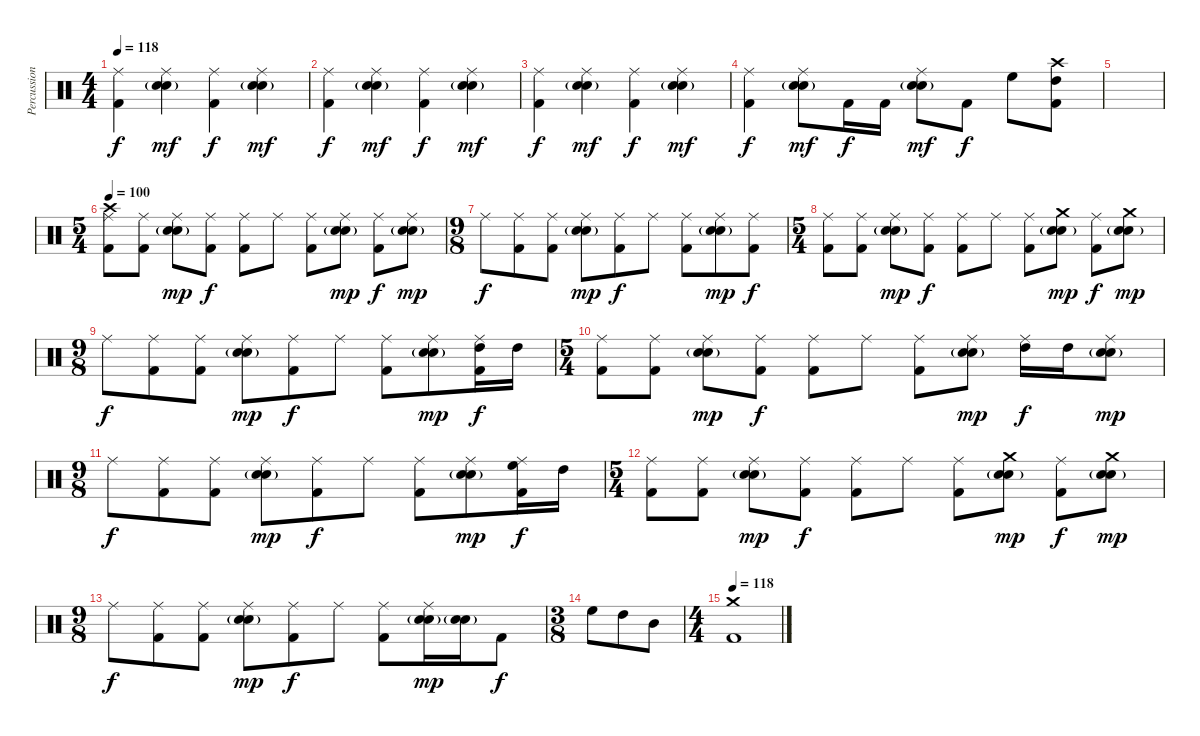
\track ("Percussion" "Percussion") {instrument percussion}
\staff {score}
\articulation defaults
\ts (4 4)
\tempo 118
\clef neutral
\ks c
("Ride (middle)" "Kick (hit) 2").4{dy f} ("Ride (middle)" "Electric Snare (hit)" "Snare (hit) 2"{g}).4{dy mf} ("Ride (middle)" "Kick (hit) 2").4{dy f} ("Ride (middle)" "Electric Snare (hit)" "Snare (hit) 2"{g}).4{dy mf} |
("Ride (middle)" "Kick (hit) 2").4{dy f} ("Ride (middle)" "Electric Snare (hit)" "Snare (hit) 2"{g}).4{dy mf} ("Ride (middle)" "Kick (hit) 2").4{dy f} ("Ride (middle)" "Electric Snare (hit)" "Snare (hit) 2"{g}).4{dy mf} |
("Ride (middle)" "Kick (hit) 2").4{dy f} ("Ride (middle)" "Electric Snare (hit)" "Snare (hit) 2"{g}).4{dy mf} ("Ride (middle)" "Kick (hit) 2").4{dy f} ("Ride (middle)" "Electric Snare (hit)" "Snare (hit) 2"{g}).4{dy mf} |
("Ride (middle)" "Kick (hit) 2").4{dy f} ("Ride (middle)" "Electric Snare (hit)" "Snare (hit) 2"{g}).8{dy mf} "Kick (hit) 2".16{dy f} "Kick (hit) 2".16 ("Ride (middle)" "Electric Snare (hit)" "Snare (hit) 2"{g}).8{dy mf} "Kick (hit) 2".8{dy f} "High Floor Tom (hit)".8 ("Crash high (hit)" "High Tom (hit)" "Kick (hit) 2").8 |
|
\ts (5 4)
\tempo 100
("Crash high (hit)" "Ride (middle)" "Kick (hit) 2").8 ("Ride (middle)" "Kick (hit) 2").8 ("Ride (middle)" "Electric Snare (hit)" "Snare (hit) 2"{g}).8{dy mp} ("Ride (middle)" "Kick (hit) 2").8{dy f} ("Ride (middle)" "Kick (hit) 2").8 "Ride (middle)".8 ("Ride (middle)" "Kick (hit) 2").8 ("Ride (middle)" "Electric Snare (hit)" "Snare (hit) 2"{g}).8{dy mp} ("Ride (middle)" "Kick (hit) 2").8{dy f} ("Ride (middle)" "Electric Snare (hit)" "Snare (hit) 2"{g}).8{dy mp} |
\ts (9 8)
"Ride (middle)".8{dy f} ("Ride (middle)" "Kick (hit) 2").8 ("Ride (middle)" "Kick (hit) 2").8 ("Ride (middle)" "Electric Snare (hit)" "Snare (hit) 2"{g}).8{dy mp} ("Ride (middle)" "Kick (hit) 2").8{dy f} "Ride (middle)".8 ("Ride (middle)" "Kick (hit) 2").8 ("Ride (middle)" "Electric Snare (hit)" "Snare (hit) 2"{g}).8{dy mp} ("Ride (middle)" "Kick (hit) 2").8{dy f} |
\ts (5 4)
("Ride (middle)" "Kick (hit) 2").8 ("Ride (middle)" "Kick (hit) 2").8 ("Ride (middle)" "Electric Snare (hit)" "Snare (hit) 2"{g}).8{dy mp} ("Ride (middle)" "Kick (hit) 2").8{dy f} ("Ride (middle)" "Kick (hit) 2").8 "Ride (middle)".8 ("Ride (middle)" "Kick (hit) 2").8 ("Crash medium (hit)" "Electric Snare (hit)" "Snare (hit) 2"{g}).8{dy mp} ("Ride (middle)" "Kick (hit) 2").8{dy f} ("Crash medium (hit)" "Electric Snare (hit)" "Snare (hit) 2"{g}).8{dy mp} |
\ts (9 8)
"Ride (middle)".8{dy f} ("Ride (middle)" "Kick (hit) 2").8 ("Ride (middle)" "Kick (hit) 2").8 ("Ride (middle)" "Electric Snare (hit)" "Snare (hit) 2"{g}).8{dy mp} ("Ride (middle)" "Kick (hit) 2").8{dy f} "Ride (middle)".8 ("Ride (middle)" "Kick (hit) 2").8 ("Ride (middle)" "Electric Snare (hit)" "Snare (hit) 2"{g}).8{dy mp} ("Ride (middle)" "High Tom (hit)" "Kick (hit) 2").16{dy f} "High Tom (hit)".16 |
\ts (5 4)
("Ride (middle)" "Kick (hit) 2").8 ("Ride (middle)" "Kick (hit) 2").8 ("Ride (middle)" "Electric Snare (hit)" "Snare (hit) 2"{g}).8{dy mp} ("Ride (middle)" "Kick (hit) 2").8{dy f} ("Ride (middle)" "Kick (hit) 2").8 "Ride (middle)".8 ("Ride (middle)" "Kick (hit) 2").8 ("Ride (middle)" "Electric Snare (hit)" "Snare (hit) 2"{g}).8{dy mp} ("Ride (middle)" "High Tom (hit)").16{dy f} "High Tom (hit)".16 ("Ride (middle)" "Electric Snare (hit)" "Snare (hit) 2"{g}).8{dy mp} |
\ts (9 8)
"Ride (middle)".8{dy f} ("Ride (middle)" "Kick (hit) 2").8 ("Ride (middle)" "Kick (hit) 2").8 ("Ride (middle)" "Electric Snare (hit)" "Snare (hit) 2"{g}).8{dy mp} ("Ride (middle)" "Kick (hit) 2").8{dy f} "Ride (middle)".8 ("Ride (middle)" "Kick (hit) 2").8 ("Ride (middle)" "Electric Snare (hit)" "Snare (hit) 2"{g}).8{dy mp} ("Ride (middle)" "High Floor Tom (hit)" "Kick (hit) 2").16{dy f} "High Tom (hit)".16 |
\ts (5 4)
("Ride (middle)" "Kick (hit) 2").8 ("Ride (middle)" "Kick (hit) 2").8 ("Ride (middle)" "Electric Snare (hit)" "Snare (hit) 2"{g}).8{dy mp} ("Ride (middle)" "Kick (hit) 2").8{dy f} ("Ride (middle)" "Kick (hit) 2").8 "Ride (middle)".8 ("Ride (middle)" "Kick (hit) 2").8 ("Crash medium (hit)" "Electric Snare (hit)" "Snare (hit) 2"{g}).8{dy mp} ("Ride (middle)" "Kick (hit) 2").8{dy f} ("Crash medium (hit)" "Electric Snare (hit)" "Snare (hit) 2"{g}).8{dy mp} |
\ts (9 8)
"Ride (middle)".8{dy f} ("Ride (middle)" "Kick (hit) 2").8 ("Ride (middle)" "Kick (hit) 2").8 ("Ride (middle)" "Electric Snare (hit)" "Snare (hit) 2"{g}).8{dy mp} ("Ride (middle)" "Kick (hit) 2").8{dy f} "Ride (middle)".8 ("Ride (middle)" "Kick (hit) 2").8 ("Ride (middle)" "Electric Snare (hit)" "Snare (hit) 2"{g}).16{dy mp} ("Electric Snare (hit)" "Snare (hit) 2"{g}).16 "Kick (hit) 2".8{dy f} |
\ts (3 8)
"High Floor Tom (hit)".8 "High Tom (hit)".8 "Mid Tom (hit)".8 |
\ts (4 4)
\tempo 118
("Crash medium (hit)" "Kick (hit) 2").1
